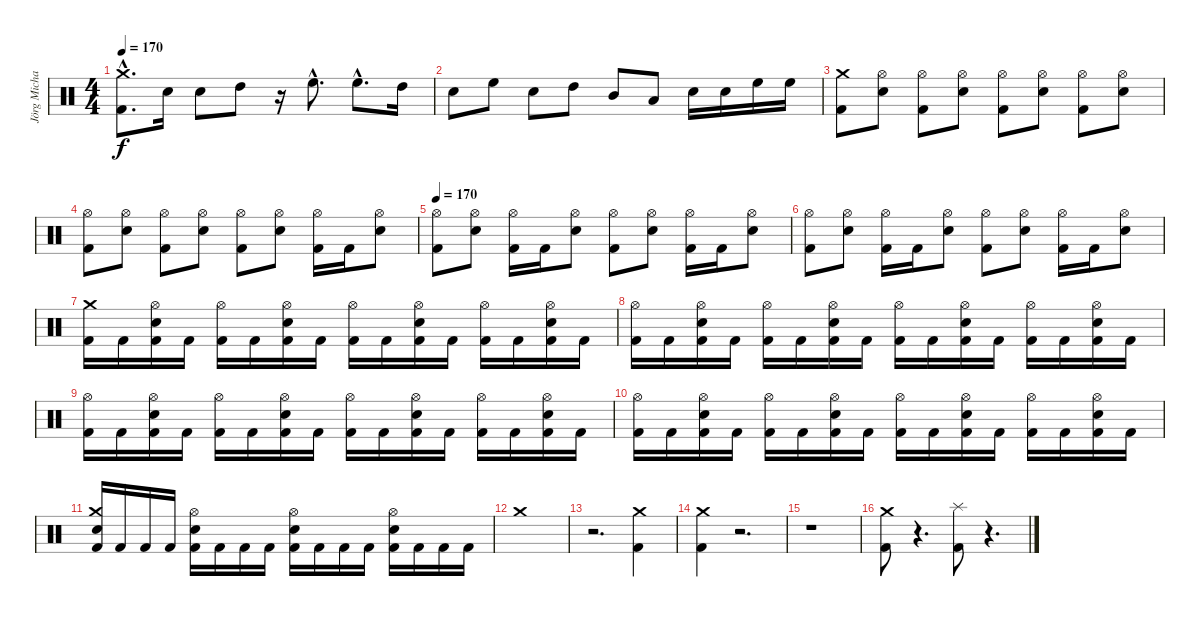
\track ("Jörg Michael" "Jörg Micha") {instrument percussion}
\staff {score}
\articulation defaults
\ts (4 4)
\tempo 170
\clef neutral
\ks c
("Kick (hit) 2" "Crash medium (hit)"{hac}).8{d dy f} "Snare (hit) 2".16 "Snare (hit) 2".8 "High Tom (hit)".8 r.16 "High Floor Tom (hit)"{hac}.8{d} "High Floor Tom (hit)"{hac}.8{d} "High Tom (hit)".16 |
"Snare (hit) 2".8 "High Floor Tom (hit)".8 "Snare (hit) 2".8 "High Tom (hit)".8 "Mid Tom (hit)".8 "Low Tom (hit)".8 "Snare (hit) 2".16 "Snare (hit) 2".16 "High Floor Tom (hit)".16 "High Floor Tom (hit)".16 |
("Kick (hit) 2" "Crash medium (hit)").8 ("Snare (hit) 2" "Hi-Hat (open)").8 ("Kick (hit) 2" "Hi-Hat (open)").8 ("Snare (hit) 2" "Hi-Hat (open)").8 ("Kick (hit) 2" "Hi-Hat (open)").8 ("Snare (hit) 2" "Hi-Hat (open)").8 ("Kick (hit) 2" "Hi-Hat (open)").8 ("Snare (hit) 2" "Hi-Hat (open)").8 |
("Hi-Hat (open)" "Kick (hit) 2").8 ("Snare (hit) 2" "Hi-Hat (open)").8 ("Kick (hit) 2" "Hi-Hat (open)").8 ("Snare (hit) 2" "Hi-Hat (open)").8 ("Kick (hit) 2" "Hi-Hat (open)").8 ("Snare (hit) 2" "Hi-Hat (open)").8 ("Kick (hit) 2" "Hi-Hat (open)").16 "Kick (hit) 2".16 ("Snare (hit) 2" "Hi-Hat (open)").8 |
\tempo 170
("Hi-Hat (open)" "Kick (hit) 2").8 ("Snare (hit) 2" "Hi-Hat (open)").8 ("Kick (hit) 2" "Hi-Hat (open)").16 "Kick (hit) 2".16 ("Snare (hit) 2" "Hi-Hat (open)").8 ("Kick (hit) 2" "Hi-Hat (open)").8 ("Snare (hit) 2" "Hi-Hat (open)").8 ("Kick (hit) 2" "Hi-Hat (open)").16 "Kick (hit) 2".16 ("Snare (hit) 2" "Hi-Hat (open)").8 |
("Hi-Hat (open)" "Kick (hit) 2").8 ("Snare (hit) 2" "Hi-Hat (open)").8 ("Kick (hit) 2" "Hi-Hat (open)").16 "Kick (hit) 2".16 ("Snare (hit) 2" "Hi-Hat (open)").8 ("Kick (hit) 2" "Hi-Hat (open)").8 ("Snare (hit) 2" "Hi-Hat (open)").8 ("Kick (hit) 2" "Hi-Hat (open)").16 "Kick (hit) 2".16 ("Snare (hit) 2" "Hi-Hat (open)").8 |
("Kick (hit) 2" "Crash medium (hit)").16 "Kick (hit) 2".16 ("Kick (hit) 2" "Snare (hit) 2" "Hi-Hat (open)").16 "Kick (hit) 2".16 ("Kick (hit) 2" "Hi-Hat (open)").16 "Kick (hit) 2".16 ("Kick (hit) 2" "Snare (hit) 2" "Hi-Hat (open)").16 "Kick (hit) 2".16 ("Kick (hit) 2" "Hi-Hat (open)").16 "Kick (hit) 2".16 ("Kick (hit) 2" "Snare (hit) 2" "Hi-Hat (open)").16 "Kick (hit) 2".16 ("Kick (hit) 2" "Hi-Hat (open)").16 "Kick (hit) 2".16 ("Kick (hit) 2" "Snare (hit) 2" "Hi-Hat (open)").16 "Kick (hit) 2".16 |
("Hi-Hat (open)" "Kick (hit) 2").16 "Kick (hit) 2".16 ("Kick (hit) 2" "Snare (hit) 2" "Hi-Hat (open)").16 "Kick (hit) 2".16 ("Kick (hit) 2" "Hi-Hat (open)").16 "Kick (hit) 2".16 ("Kick (hit) 2" "Snare (hit) 2" "Hi-Hat (open)").16 "Kick (hit) 2".16 ("Kick (hit) 2" "Hi-Hat (open)").16 "Kick (hit) 2".16 ("Kick (hit) 2" "Snare (hit) 2" "Hi-Hat (open)").16 "Kick (hit) 2".16 ("Kick (hit) 2" "Hi-Hat (open)").16 "Kick (hit) 2".16 ("Kick (hit) 2" "Snare (hit) 2" "Hi-Hat (open)").16 "Kick (hit) 2".16 |
("Hi-Hat (open)" "Kick (hit) 2").16 "Kick (hit) 2".16 ("Kick (hit) 2" "Snare (hit) 2" "Hi-Hat (open)").16 "Kick (hit) 2".16 ("Kick (hit) 2" "Hi-Hat (open)").16 "Kick (hit) 2".16 ("Kick (hit) 2" "Snare (hit) 2" "Hi-Hat (open)").16 "Kick (hit) 2".16 ("Kick (hit) 2" "Hi-Hat (open)").16 "Kick (hit) 2".16 ("Kick (hit) 2" "Snare (hit) 2" "Hi-Hat (open)").16 "Kick (hit) 2".16 ("Kick (hit) 2" "Hi-Hat (open)").16 "Kick (hit) 2".16 ("Kick (hit) 2" "Snare (hit) 2" "Hi-Hat (open)").16 "Kick (hit) 2".16 |
("Hi-Hat (open)" "Kick (hit) 2").16 "Kick (hit) 2".16 ("Kick (hit) 2" "Snare (hit) 2" "Hi-Hat (open)").16 "Kick (hit) 2".16 ("Kick (hit) 2" "Hi-Hat (open)").16 "Kick (hit) 2".16 ("Kick (hit) 2" "Snare (hit) 2" "Hi-Hat (open)").16 "Kick (hit) 2".16 ("Kick (hit) 2" "Hi-Hat (open)").16 "Kick (hit) 2".16 ("Kick (hit) 2" "Snare (hit) 2" "Hi-Hat (open)").16 "Kick (hit) 2".16 ("Kick (hit) 2" "Hi-Hat (open)").16 "Kick (hit) 2".16 ("Kick (hit) 2" "Snare (hit) 2" "Hi-Hat (open)").16 "Kick (hit) 2".16 |
("Snare (hit) 2" "Crash medium (hit)" "Kick (hit) 2").16 "Kick (hit) 2".16 "Kick (hit) 2".16 "Kick (hit) 2".16 ("Snare (hit) 2" "Hi-Hat (open)" "Kick (hit) 2").16 "Kick (hit) 2".16 "Kick (hit) 2".16 "Kick (hit) 2".16 ("Snare (hit) 2" "Hi-Hat (open)" "Kick (hit) 2").16 "Kick (hit) 2".16 "Kick (hit) 2".16 "Kick (hit) 2".16 ("Snare (hit) 2" "Hi-Hat (open)" "Kick (hit) 2").16 "Kick (hit) 2".16 "Kick (hit) 2".16 "Kick (hit) 2".16 |
"Crash medium (hit)".1 |
r.2{d} ("Kick (hit) 2" "Crash medium (hit)").4 |
("Crash medium (hit)" "Kick (hit) 2").4 r.2{d} |
r.1 |
("Crash medium (hit)" "Kick (hit) 2").8 r.4{d} ("Splash (hit)" "Kick (hit) 2").8 r.4{d}
